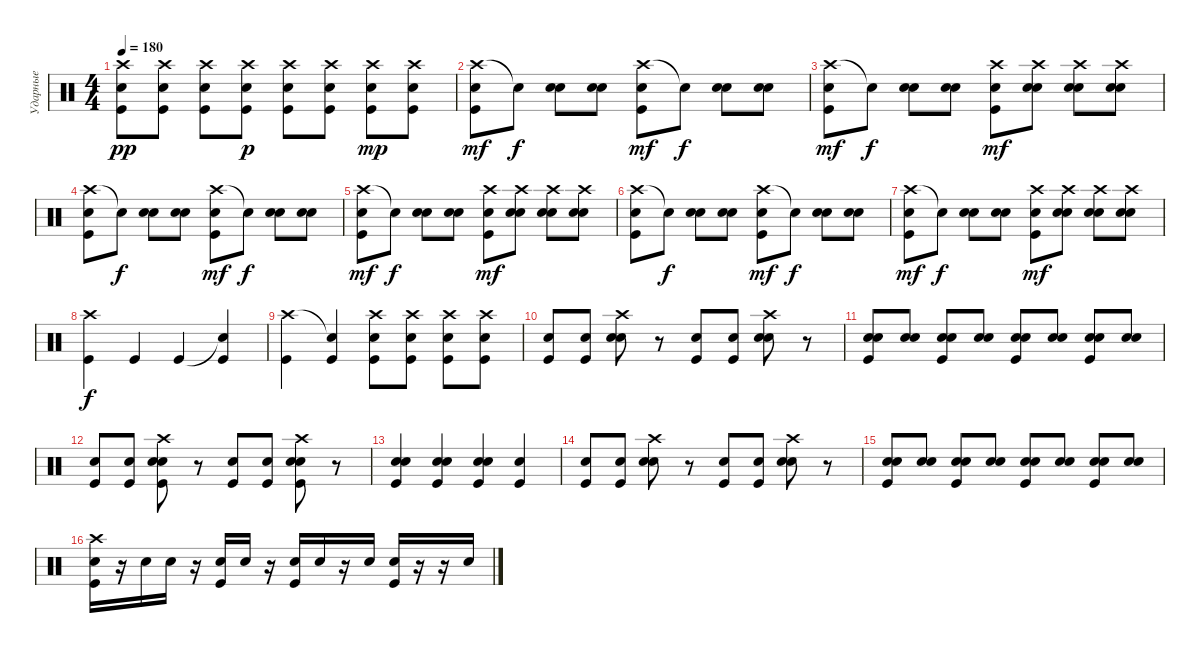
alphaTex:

\track ("Ударные" "Ударные") {instrument percussion}
\staff {score}
\articulation defaults
\ts (4 4)
\tempo 180
\clef neutral
\ks c
("Crash high (hit)" "Kick (hit)" "Electric Snare (hit)").8{dy pp} ("Crash high (hit)" "Kick (hit)" "Electric Snare (hit)").8 ("Crash high (hit)" "Kick (hit)" "Electric Snare (hit)").8 ("Crash high (hit)" "Kick (hit)" "Electric Snare (hit)").8{dy p} ("Crash high (hit)" "Kick (hit)" "Electric Snare (hit)").8 ("Crash high (hit)" "Kick (hit)" "Electric Snare (hit)").8 ("Crash high (hit)" "Kick (hit)" "Electric Snare (hit)").8{dy mp} ("Crash high (hit)" "Kick (hit)" "Electric Snare (hit)").8 |
("Crash high (hit)" "Kick (hit)" "Electric Snare (hit)").8{dy mf} "Snare (hit)"{t}.8{dy f} ("Electric Snare (hit)" "Electric Snare (hit)").8 ("Electric Snare (hit)" "Electric Snare (hit)").8 ("Crash high (hit)" "Kick (hit)" "Electric Snare (hit)").8{dy mf} "Snare (hit)"{t}.8{dy f} ("Electric Snare (hit)" "Electric Snare (hit)").8 ("Electric Snare (hit)" "Electric Snare (hit)").8 |
("Crash high (hit)" "Kick (hit)" "Electric Snare (hit)").8{dy mf} "Snare (hit)"{t}.8{dy f} ("Electric Snare (hit)" "Electric Snare (hit)").8 ("Electric Snare (hit)" "Electric Snare (hit)").8 ("Crash high (hit)" "Kick (hit)" "Electric Snare (hit)").8{dy mf} ("Crash high (hit)" "Electric Snare (hit)" "Electric Snare (hit)").8 ("Crash high (hit)" "Electric Snare (hit)" "Electric Snare (hit)").8 ("Crash high (hit)" "Electric Snare (hit)" "Electric Snare (hit)").8 |
("Crash high (hit)" "Kick (hit)" "Electric Snare (hit)").8 "Snare (hit)"{t}.8{dy f} ("Electric Snare (hit)" "Electric Snare (hit)").8 ("Electric Snare (hit)" "Electric Snare (hit)").8 ("Crash high (hit)" "Kick (hit)" "Electric Snare (hit)").8{dy mf} "Snare (hit)"{t}.8{dy f} ("Electric Snare (hit)" "Electric Snare (hit)").8 ("Electric Snare (hit)" "Electric Snare (hit)").8 |
("Crash high (hit)" "Kick (hit)" "Electric Snare (hit)").8{dy mf} "Snare (hit)"{t}.8{dy f} ("Electric Snare (hit)" "Electric Snare (hit)").8 ("Electric Snare (hit)" "Electric Snare (hit)").8 ("Crash high (hit)" "Kick (hit)" "Electric Snare (hit)").8{dy mf} ("Crash high (hit)" "Electric Snare (hit)" "Electric Snare (hit)").8 ("Crash high (hit)" "Electric Snare (hit)" "Electric Snare (hit)").8 ("Crash high (hit)" "Electric Snare (hit)" "Electric Snare (hit)").8 |
("Crash high (hit)" "Kick (hit)" "Electric Snare (hit)").8 "Snare (hit)"{t}.8{dy f} ("Electric Snare (hit)" "Electric Snare (hit)").8 ("Electric Snare (hit)" "Electric Snare (hit)").8 ("Crash high (hit)" "Kick (hit)" "Electric Snare (hit)").8{dy mf} "Snare (hit)"{t}.8{dy f} ("Electric Snare (hit)" "Electric Snare (hit)").8 ("Electric Snare (hit)" "Electric Snare (hit)").8 |
("Crash high (hit)" "Kick (hit)" "Electric Snare (hit)").8{dy mf} "Snare (hit)"{t}.8{dy f} ("Electric Snare (hit)" "Electric Snare (hit)").8 ("Electric Snare (hit)" "Electric Snare (hit)").8 ("Crash high (hit)" "Kick (hit)" "Electric Snare (hit)").8{dy mf} ("Crash high (hit)" "Electric Snare (hit)" "Electric Snare (hit)").8 ("Crash high (hit)" "Electric Snare (hit)" "Electric Snare (hit)").8 ("Crash high (hit)" "Electric Snare (hit)" "Electric Snare (hit)").8 |
("Crash high (hit)" "Kick (hit)").4{dy f} "Kick (hit)".4 "Kick (hit)".4 ("Snare (hit)"{t} "Kick (hit)").4 |
("Crash high (hit)" "Kick (hit)").4 ("Snare (hit)"{t} "Kick (hit)").4 ("Crash high (hit)" "Electric Snare (hit)" "Kick (hit)").8 ("Crash high (hit)" "Electric Snare (hit)" "Kick (hit)").8 ("Crash high (hit)" "Electric Snare (hit)" "Kick (hit)").8 ("Crash high (hit)" "Electric Snare (hit)" "Kick (hit)").8 |
("Kick (hit)" "Electric Snare (hit)").8 ("Kick (hit)" "Electric Snare (hit)").8 ("Crash high (hit)" "Electric Snare (hit)" "Electric Snare (hit)").8 r.8 ("Kick (hit)" "Electric Snare (hit)").8 ("Kick (hit)" "Electric Snare (hit)").8 ("Crash high (hit)" "Electric Snare (hit)" "Electric Snare (hit)").8 r.8 |
("Kick (hit)" "Snare (hit) 2" "Electric Snare (hit)").8 ("Snare (hit) 2" "Electric Snare (hit)").8 ("Kick (hit)" "Snare (hit) 2" "Electric Snare (hit)").8 ("Snare (hit) 2" "Electric Snare (hit)").8 ("Kick (hit)" "Electric Snare (hit)" "Electric Snare (hit)").8 ("Electric Snare (hit)" "Electric Snare (hit)").8 ("Kick (hit)" "Electric Snare (hit)" "Electric Snare (hit)").8 ("Electric Snare (hit)" "Electric Snare (hit)").8 |
("Kick (hit)" "Electric Snare (hit)").8 ("Kick (hit)" "Electric Snare (hit)").8 ("Kick (hit)" "Crash high (hit)" "Electric Snare (hit)" "Electric Snare (hit)").8 r.8 ("Kick (hit)" "Electric Snare (hit)").8 ("Kick (hit)" "Electric Snare (hit)").8 ("Kick (hit)" "Crash high (hit)" "Electric Snare (hit)" "Electric Snare (hit)").8 r.8 |
("Electric Snare (hit)" "Electric Snare (hit)" "Kick (hit)").4 ("Electric Snare (hit)" "Electric Snare (hit)" "Kick (hit)").4 ("Electric Snare (hit)" "Kick (hit)" "Electric Snare (hit)").4 ("Electric Snare (hit)" "Kick (hit)").4 |
("Kick (hit)" "Electric Snare (hit)").8 ("Kick (hit)" "Electric Snare (hit)").8 ("Crash high (hit)" "Electric Snare (hit)" "Electric Snare (hit)").8 r.8 ("Kick (hit)" "Electric Snare (hit)").8 ("Kick (hit)" "Electric Snare (hit)").8 ("Crash high (hit)" "Electric Snare (hit)" "Electric Snare (hit)").8 r.8 |
("Kick (hit)" "Snare (hit) 2" "Electric Snare (hit)").8 ("Snare (hit) 2" "Electric Snare (hit)").8 ("Kick (hit)" "Snare (hit) 2" "Electric Snare (hit)").8 ("Snare (hit) 2" "Electric Snare (hit)").8 ("Kick (hit)" "Electric Snare (hit)" "Electric Snare (hit)").8 ("Electric Snare (hit)" "Electric Snare (hit)").8 ("Kick (hit)" "Electric Snare (hit)" "Electric Snare (hit)").8 ("Electric Snare (hit)" "Electric Snare (hit)").8 |
("Kick (hit)" "Crash high (hit)" "Electric Snare (hit)").16 r.16 "Electric Snare (hit)".16 "Electric Snare (hit)".16 r.16 ("Kick (hit)" "Electric Snare (hit)").16 "Electric Snare (hit)".16 r.16 ("Kick (hit)" "Electric Snare (hit)").16 "Electric Snare (hit)".16 r.16 "Electric Snare (hit)".16 ("Kick (hit)" "Electric Snare (hit)").16 r.16 r.16 "Electric Snare (hit)".16
